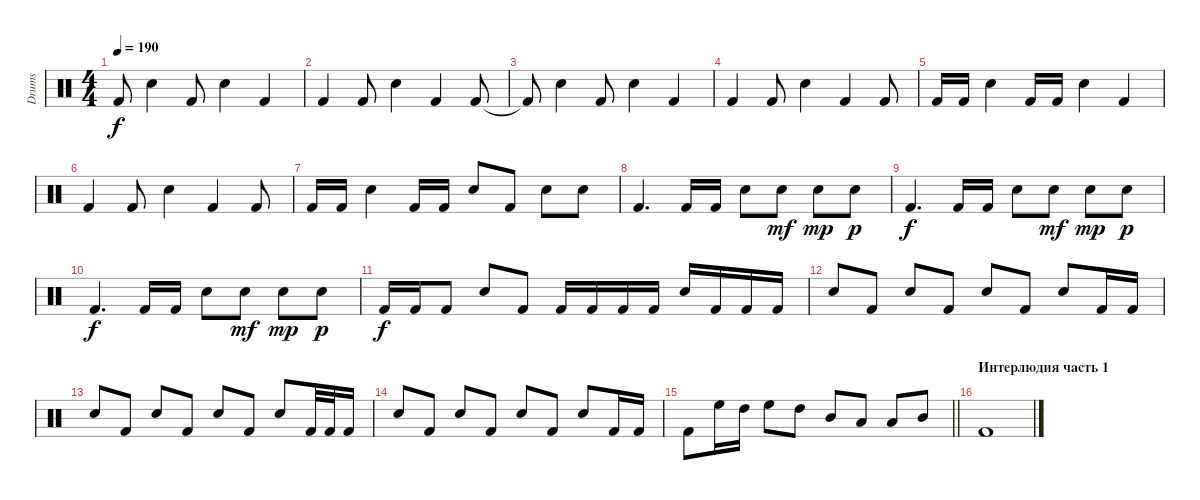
\track ("Drums" "Drums") {instrument percussion}
\staff {score}
\articulation defaults
\ts (4 4)
\tempo 190
\clef neutral
\ks c "Kick (hit) 2"{t}.8{dy f} "Snare (hit) 2".4 "Kick (hit) 2".8 "Snare (hit) 2".4 "Kick (hit) 2".4
|
"Kick (hit) 2".4 "Kick (hit) 2".8 "Snare (hit) 2".4 "Kick (hit) 2".4 "Kick (hit) 2".8 |
"Kick (hit) 2"{t}.8 "Snare (hit) 2".4 "Kick (hit) 2".8 "Snare (hit) 2".4 "Kick (hit) 2".4 |
"Kick (hit) 2".4 "Kick (hit) 2".8 "Snare (hit) 2".4 "Kick (hit) 2".4 "Kick (hit) 2".8 |
"Kick (hit) 2".16 "Kick (hit) 2".16 "Snare (hit) 2".4 "Kick (hit) 2".16 "Kick (hit) 2".16 "Snare (hit) 2".4 "Kick (hit) 2".4 |
"Kick (hit) 2".4 "Kick (hit) 2".8 "Snare (hit) 2".4 "Kick (hit) 2".4 "Kick (hit) 2".8 |
"Kick (hit) 2".16 "Kick (hit) 2".16 "Snare (hit) 2".4 "Kick (hit) 2".16 "Kick (hit) 2".16 "Snare (hit) 2".8 "Kick (hit) 2".8 "Snare (hit) 2".8 "Snare (hit) 2".8 |
"Kick (hit) 2".4{d} "Kick (hit) 2".16 "Kick (hit) 2".16 "Snare (hit) 2".8 "Snare (hit) 2".8{dy mf} "Snare (hit) 2".8{dy mp} "Snare (hit) 2".8{dy p} |
"Kick (hit) 2".4{d dy f} "Kick (hit) 2".16 "Kick (hit) 2".16 "Snare (hit) 2".8 "Snare (hit) 2".8{dy mf} "Snare (hit) 2".8{dy mp} "Snare (hit) 2".8{dy p} |
"Kick (hit) 2".4{d dy f} "Kick (hit) 2".16 "Kick (hit) 2".16 "Snare (hit) 2".8 "Snare (hit) 2".8{dy mf} "Snare (hit) 2".8{dy mp} "Snare (hit) 2".8{dy p} |
"Kick (hit) 2".16{dy f} "Kick (hit) 2".16 "Kick (hit) 2".8 "Snare (hit) 2".8 "Kick (hit) 2".8 "Kick (hit) 2".16 "Kick (hit) 2".16 "Kick (hit) 2".16 "Kick (hit) 2".16 "Snare (hit) 2".16 "Kick (hit) 2".16 "Kick (hit) 2".16 "Kick (hit) 2".16 |
"Snare (hit) 2".8 "Kick (hit) 2".8 "Snare (hit) 2".8 "Kick (hit) 2".8 "Snare (hit) 2".8 "Kick (hit) 2".8 "Snare (hit) 2".8 "Kick (hit) 2".16 "Kick (hit) 2".16 |
"Snare (hit) 2".8 "Kick (hit) 2".8 "Snare (hit) 2".8 "Kick (hit) 2".8 "Snare (hit) 2".8 "Kick (hit) 2".8 "Snare (hit) 2".8 "Kick (hit) 2".32 "Kick (hit) 2".32 "Kick (hit) 2".16 |
"Snare (hit) 2".8 "Kick (hit) 2".8 "Snare (hit) 2".8 "Kick (hit) 2".8 "Snare (hit) 2".8 "Kick (hit) 2".8 "Snare (hit) 2".8 "Kick (hit) 2".16 "Kick (hit) 2".16 |
\barLineRight lightlight "Kick (hit) 2".8 "High Floor Tom (hit)".16 "High Tom (hit)".16 "High Floor Tom (hit)".8 "High Tom (hit)".8 "Mid Tom (hit)".8 "Low Tom (hit)".8 "Low Tom (hit)".8 "Mid Tom (hit)".8
|
\section ("" "Интерлюдия часть 1")
"Kick (hit) 2".1
